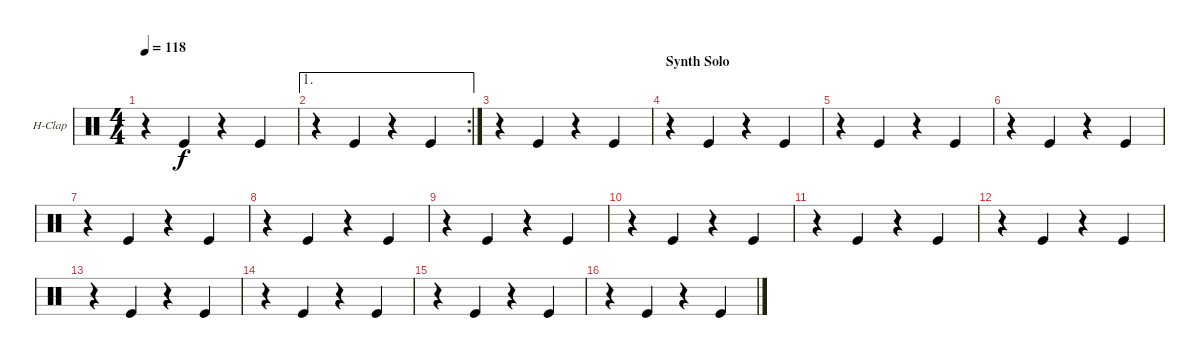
\bracketExtendMode groupsimilarinstruments
\firstSystemTrackNameOrientation horizontal
\otherSystemsTrackNameOrientation horizontal
\track ("Hand Clap" "H-Clap") {instrument percussion}
\staff {score}
\articulation defaults
\ts (4 4)
\tempo 118
\clef neutral
\ks c
r.4{dy f} "Kick (hit)".4 r.4 "Kick (hit)".4 |
\ae 1
\rc 2
r.4 "Kick (hit)".4 r.4 "Kick (hit)".4 |
r.4 "Kick (hit)".4 r.4 "Kick (hit)".4 |
\section ("" "Synth Solo")
r.4 "Kick (hit)".4 r.4 "Kick (hit)".4 |
r.4 "Kick (hit)".4 r.4 "Kick (hit)".4 |
r.4 "Kick (hit)".4 r.4 "Kick (hit)".4 |
r.4 "Kick (hit)".4 r.4 "Kick (hit)".4 |
r.4 "Kick (hit)".4 r.4 "Kick (hit)".4 |
r.4 "Kick (hit)".4 r.4 "Kick (hit)".4 |
r.4 "Kick (hit)".4 r.4 "Kick (hit)".4 |
r.4 "Kick (hit)".4 r.4 "Kick (hit)".4 |
r.4 "Kick (hit)".4 r.4 "Kick (hit)".4 |
r.4 "Kick (hit)".4 r.4 "Kick (hit)".4 |
r.4 "Kick (hit)".4 r.4 "Kick (hit)".4 |
r.4 "Kick (hit)".4 r.4 "Kick (hit)".4 |
r.4 "Kick (hit)".4 r.4 "Kick (hit)".4
